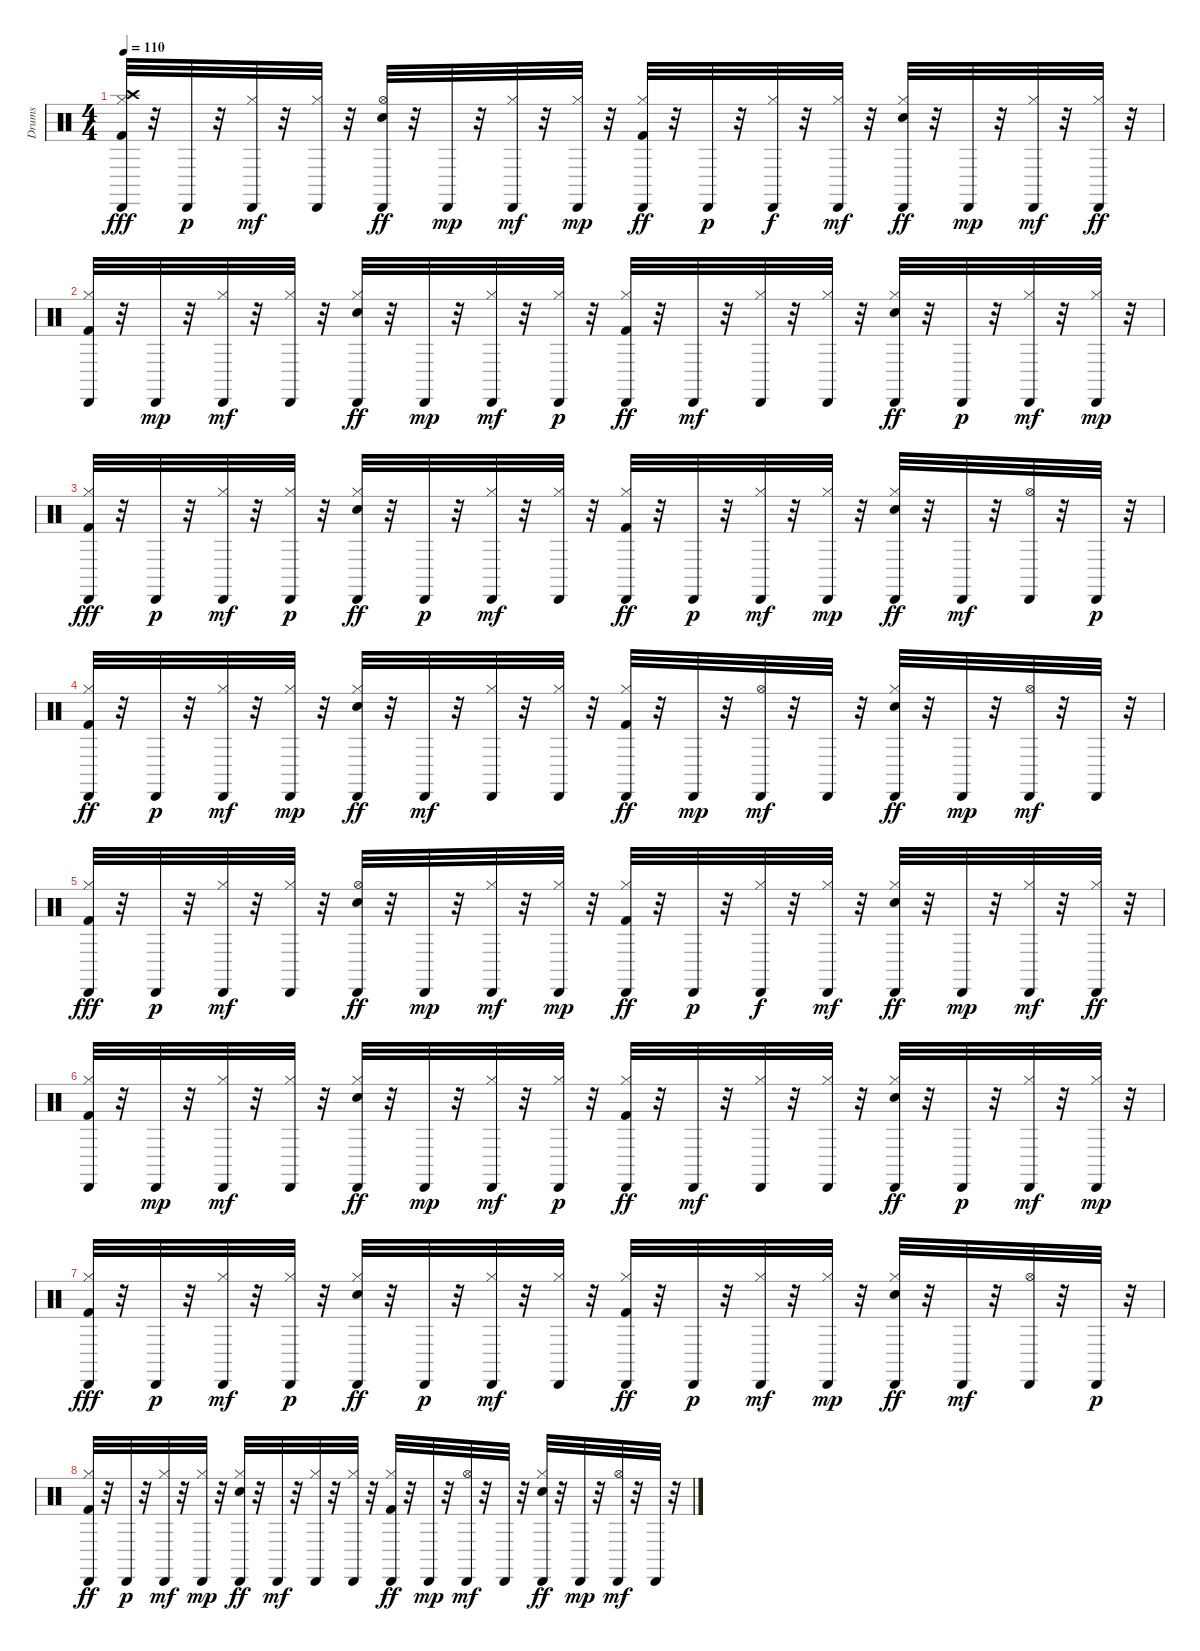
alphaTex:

\track ("Drums" "Drums") {instrument percussion}
\staff {score}
\articulation defaults
\ts (4 4)
\tempo 110
\clef neutral
\ks c
("Cabasa (hit)" "Crash high (hit)" "Hi-Hat (closed)" "Kick (hit) 2").32{dy fff} r.32 "Cabasa (hit)".32{dy p} r.32 ("Cabasa (hit)" "Hi-Hat (closed)").32{dy mf} r.32 ("Cabasa (hit)" "Hi-Hat (closed)").32 r.32 ("Hi-Hat (open)" "Cabasa (hit)" "Snare (hit) 2").32{dy ff} r.32 "Cabasa (hit)".32{dy mp} r.32 ("Cabasa (hit)" "Hi-Hat (closed)").32{dy mf} r.32 ("Cabasa (hit)" "Hi-Hat (closed)").32{dy mp} r.32 ("Cabasa (hit)" "Hi-Hat (closed)" "Kick (hit) 2").32{dy ff} r.32 "Cabasa (hit)".32{dy p} r.32 ("Cabasa (hit)" "Hi-Hat (closed)").32{dy f} r.32 ("Cabasa (hit)" "Hi-Hat (closed)").32{dy mf} r.32 ("Cabasa (hit)" "Hi-Hat (closed)" "Snare (hit) 2").32{dy ff} r.32 "Cabasa (hit)".32{dy mp} r.32 ("Cabasa (hit)" "Hi-Hat (closed)").32{dy mf} r.32 ("Cabasa (hit)" "Hi-Hat (closed)").32{dy ff} r.32 |
("Cabasa (hit)" "Hi-Hat (closed)" "Kick (hit) 2").32 r.32 "Cabasa (hit)".32{dy mp} r.32 ("Cabasa (hit)" "Hi-Hat (closed)").32{dy mf} r.32 ("Cabasa (hit)" "Hi-Hat (closed)").32 r.32 ("Cabasa (hit)" "Hi-Hat (closed)" "Snare (hit) 2").32{dy ff} r.32 "Cabasa (hit)".32{dy mp} r.32 ("Cabasa (hit)" "Hi-Hat (closed)").32{dy mf} r.32 ("Cabasa (hit)" "Hi-Hat (closed)").32{dy p} r.32 ("Cabasa (hit)" "Hi-Hat (closed)" "Kick (hit) 2").32{dy ff} r.32 "Cabasa (hit)".32{dy mf} r.32 ("Cabasa (hit)" "Hi-Hat (closed)").32 r.32 ("Cabasa (hit)" "Hi-Hat (closed)").32 r.32 ("Cabasa (hit)" "Hi-Hat (closed)" "Snare (hit) 2").32{dy ff} r.32 "Cabasa (hit)".32{dy p} r.32 ("Cabasa (hit)" "Hi-Hat (closed)").32{dy mf} r.32 ("Cabasa (hit)" "Hi-Hat (closed)").32{dy mp} r.32 |
("Cabasa (hit)" "Hi-Hat (closed)" "Kick (hit) 2").32{dy fff} r.32 "Cabasa (hit)".32{dy p} r.32 ("Cabasa (hit)" "Hi-Hat (closed)").32{dy mf} r.32 ("Cabasa (hit)" "Hi-Hat (closed)").32{dy p} r.32 ("Cabasa (hit)" "Hi-Hat (closed)" "Snare (hit) 2").32{dy ff} r.32 "Cabasa (hit)".32{dy p} r.32 ("Cabasa (hit)" "Hi-Hat (closed)").32{dy mf} r.32 ("Cabasa (hit)" "Hi-Hat (closed)").32 r.32 ("Cabasa (hit)" "Hi-Hat (closed)" "Kick (hit) 2").32{dy ff} r.32 "Cabasa (hit)".32{dy p} r.32 ("Cabasa (hit)" "Hi-Hat (closed)").32{dy mf} r.32 ("Cabasa (hit)" "Hi-Hat (closed)").32{dy mp} r.32 ("Cabasa (hit)" "Hi-Hat (closed)" "Snare (hit) 2").32{dy ff} r.32 "Cabasa (hit)".32{dy mf} r.32 ("Hi-Hat (open)" "Cabasa (hit)").32 r.32 "Cabasa (hit)".32{dy p} r.32 |
("Cabasa (hit)" "Hi-Hat (closed)" "Kick (hit) 2").32{dy ff} r.32 "Cabasa (hit)".32{dy p} r.32 ("Cabasa (hit)" "Hi-Hat (closed)").32{dy mf} r.32 ("Cabasa (hit)" "Hi-Hat (closed)").32{dy mp} r.32 ("Cabasa (hit)" "Hi-Hat (closed)" "Snare (hit) 2").32{dy ff} r.32 "Cabasa (hit)".32{dy mf} r.32 ("Cabasa (hit)" "Hi-Hat (closed)").32 r.32 ("Cabasa (hit)" "Hi-Hat (closed)").32 r.32 ("Cabasa (hit)" "Hi-Hat (closed)" "Kick (hit) 2").32{dy ff} r.32 "Cabasa (hit)".32{dy mp} r.32 ("Hi-Hat (open)" "Cabasa (hit)").32{dy mf} r.32 "Cabasa (hit)".32 r.32 ("Cabasa (hit)" "Hi-Hat (closed)" "Snare (hit) 2").32{dy ff} r.32 "Cabasa (hit)".32{dy mp} r.32 ("Hi-Hat (open)" "Cabasa (hit)").32{dy mf} r.32 "Cabasa (hit)".32 r.32 |
("Cabasa (hit)" "Hi-Hat (closed)" "Kick (hit) 2").32{dy fff} r.32 "Cabasa (hit)".32{dy p} r.32 ("Cabasa (hit)" "Hi-Hat (closed)").32{dy mf} r.32 ("Cabasa (hit)" "Hi-Hat (closed)").32 r.32 ("Hi-Hat (open)" "Cabasa (hit)" "Snare (hit) 2").32{dy ff} r.32 "Cabasa (hit)".32{dy mp} r.32 ("Cabasa (hit)" "Hi-Hat (closed)").32{dy mf} r.32 ("Cabasa (hit)" "Hi-Hat (closed)").32{dy mp} r.32 ("Cabasa (hit)" "Hi-Hat (closed)" "Kick (hit) 2").32{dy ff} r.32 "Cabasa (hit)".32{dy p} r.32 ("Cabasa (hit)" "Hi-Hat (closed)").32{dy f} r.32 ("Cabasa (hit)" "Hi-Hat (closed)").32{dy mf} r.32 ("Cabasa (hit)" "Hi-Hat (closed)" "Snare (hit) 2").32{dy ff} r.32 "Cabasa (hit)".32{dy mp} r.32 ("Cabasa (hit)" "Hi-Hat (closed)").32{dy mf} r.32 ("Cabasa (hit)" "Hi-Hat (closed)").32{dy ff} r.32 |
("Cabasa (hit)" "Hi-Hat (closed)" "Kick (hit) 2").32 r.32 "Cabasa (hit)".32{dy mp} r.32 ("Cabasa (hit)" "Hi-Hat (closed)").32{dy mf} r.32 ("Cabasa (hit)" "Hi-Hat (closed)").32 r.32 ("Cabasa (hit)" "Hi-Hat (closed)" "Snare (hit) 2").32{dy ff} r.32 "Cabasa (hit)".32{dy mp} r.32 ("Cabasa (hit)" "Hi-Hat (closed)").32{dy mf} r.32 ("Cabasa (hit)" "Hi-Hat (closed)").32{dy p} r.32 ("Cabasa (hit)" "Hi-Hat (closed)" "Kick (hit) 2").32{dy ff} r.32 "Cabasa (hit)".32{dy mf} r.32 ("Cabasa (hit)" "Hi-Hat (closed)").32 r.32 ("Cabasa (hit)" "Hi-Hat (closed)").32 r.32 ("Cabasa (hit)" "Hi-Hat (closed)" "Snare (hit) 2").32{dy ff} r.32 "Cabasa (hit)".32{dy p} r.32 ("Cabasa (hit)" "Hi-Hat (closed)").32{dy mf} r.32 ("Cabasa (hit)" "Hi-Hat (closed)").32{dy mp} r.32 |
("Cabasa (hit)" "Hi-Hat (closed)" "Kick (hit) 2").32{dy fff} r.32 "Cabasa (hit)".32{dy p} r.32 ("Cabasa (hit)" "Hi-Hat (closed)").32{dy mf} r.32 ("Cabasa (hit)" "Hi-Hat (closed)").32{dy p} r.32 ("Cabasa (hit)" "Hi-Hat (closed)" "Snare (hit) 2").32{dy ff} r.32 "Cabasa (hit)".32{dy p} r.32 ("Cabasa (hit)" "Hi-Hat (closed)").32{dy mf} r.32 ("Cabasa (hit)" "Hi-Hat (closed)").32 r.32 ("Cabasa (hit)" "Hi-Hat (closed)" "Kick (hit) 2").32{dy ff} r.32 "Cabasa (hit)".32{dy p} r.32 ("Cabasa (hit)" "Hi-Hat (closed)").32{dy mf} r.32 ("Cabasa (hit)" "Hi-Hat (closed)").32{dy mp} r.32 ("Cabasa (hit)" "Hi-Hat (closed)" "Snare (hit) 2").32{dy ff} r.32 "Cabasa (hit)".32{dy mf} r.32 ("Hi-Hat (open)" "Cabasa (hit)").32 r.32 "Cabasa (hit)".32{dy p} r.32 |
("Cabasa (hit)" "Hi-Hat (closed)" "Kick (hit) 2").32{dy ff} r.32 "Cabasa (hit)".32{dy p} r.32 ("Cabasa (hit)" "Hi-Hat (closed)").32{dy mf} r.32 ("Cabasa (hit)" "Hi-Hat (closed)").32{dy mp} r.32 ("Cabasa (hit)" "Hi-Hat (closed)" "Snare (hit) 2").32{dy ff} r.32 "Cabasa (hit)".32{dy mf} r.32 ("Cabasa (hit)" "Hi-Hat (closed)").32 r.32 ("Cabasa (hit)" "Hi-Hat (closed)").32 r.32 ("Cabasa (hit)" "Hi-Hat (closed)" "Kick (hit) 2").32{dy ff} r.32 "Cabasa (hit)".32{dy mp} r.32 ("Hi-Hat (open)" "Cabasa (hit)").32{dy mf} r.32 "Cabasa (hit)".32 r.32 ("Cabasa (hit)" "Hi-Hat (closed)" "Snare (hit) 2").32{dy ff} r.32 "Cabasa (hit)".32{dy mp} r.32 ("Hi-Hat (open)" "Cabasa (hit)").32{dy mf} r.32 "Cabasa (hit)".32 r.32
